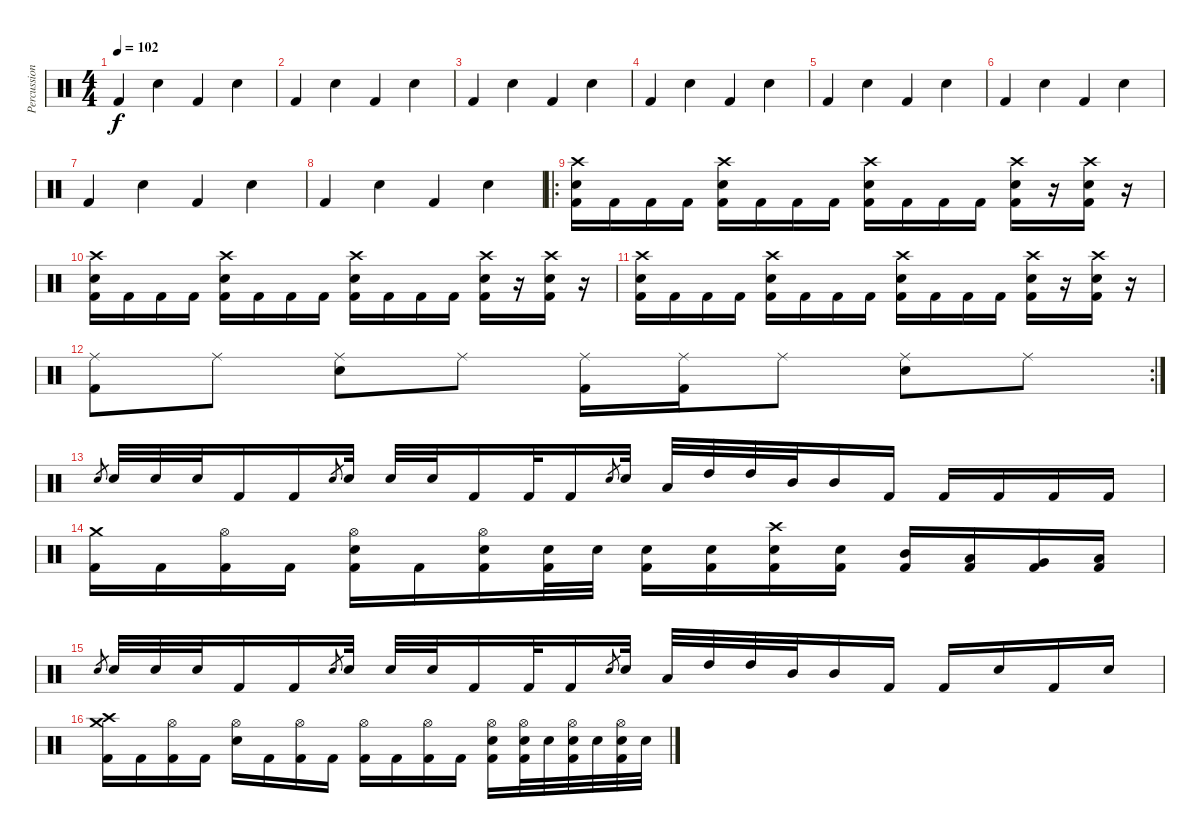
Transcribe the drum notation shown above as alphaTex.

\track ("Percussion" "Percussion") {instrument percussion}
\staff {score}
\articulation defaults
\ts (4 4)
\tempo 102
\clef neutral
\ks c "Kick (hit) 2".4{dy f} "Electric Snare (hit)".4 "Kick (hit) 2".4 "Electric Snare (hit)".4
|
"Kick (hit) 2".4 "Electric Snare (hit)".4 "Kick (hit) 2".4 "Electric Snare (hit)".4 |
"Kick (hit) 2".4 "Electric Snare (hit)".4 "Kick (hit) 2".4 "Electric Snare (hit)".4 |
"Kick (hit) 2".4 "Electric Snare (hit)".4 "Kick (hit) 2".4 "Electric Snare (hit)".4 |
"Kick (hit) 2".4 "Electric Snare (hit)".4 "Kick (hit) 2".4 "Electric Snare (hit)".4 |
"Kick (hit) 2".4 "Electric Snare (hit)".4 "Kick (hit) 2".4 "Electric Snare (hit)".4 |
"Kick (hit) 2".4 "Electric Snare (hit)".4 "Kick (hit) 2".4 "Electric Snare (hit)".4 |
"Kick (hit) 2".4 "Electric Snare (hit)".4 "Kick (hit) 2".4 "Electric Snare (hit)".4 |
\ro
("Kick (hit) 2" "Crash high (hit)" "Electric Snare (hit)").16 "Kick (hit) 2".16 "Kick (hit) 2".16 "Kick (hit) 2".16 ("Kick (hit) 2" "Crash high (hit)" "Electric Snare (hit)").16 "Kick (hit) 2".16 "Kick (hit) 2".16 "Kick (hit) 2".16 ("Kick (hit) 2" "Crash high (hit)" "Electric Snare (hit)").16 "Kick (hit) 2".16 "Kick (hit) 2".16 "Kick (hit) 2".16 ("Kick (hit) 2" "Crash high (hit)" "Electric Snare (hit)").16 r.16 ("Kick (hit) 2" "Crash high (hit)" "Electric Snare (hit)").16 r.16 |
("Kick (hit) 2" "Crash high (hit)" "Electric Snare (hit)").16 "Kick (hit) 2".16 "Kick (hit) 2".16 "Kick (hit) 2".16 ("Kick (hit) 2" "Crash high (hit)" "Electric Snare (hit)").16 "Kick (hit) 2".16 "Kick (hit) 2".16 "Kick (hit) 2".16 ("Kick (hit) 2" "Crash high (hit)" "Electric Snare (hit)").16 "Kick (hit) 2".16 "Kick (hit) 2".16 "Kick (hit) 2".16 ("Kick (hit) 2" "Crash high (hit)" "Electric Snare (hit)").16 r.16 ("Kick (hit) 2" "Crash high (hit)" "Electric Snare (hit)").16 r.16 |
("Kick (hit) 2" "Crash high (hit)" "Electric Snare (hit)").16 "Kick (hit) 2".16 "Kick (hit) 2".16 "Kick (hit) 2".16 ("Kick (hit) 2" "Crash high (hit)" "Electric Snare (hit)").16 "Kick (hit) 2".16 "Kick (hit) 2".16 "Kick (hit) 2".16 ("Kick (hit) 2" "Crash high (hit)" "Electric Snare (hit)").16 "Kick (hit) 2".16 "Kick (hit) 2".16 "Kick (hit) 2".16 ("Kick (hit) 2" "Crash high (hit)" "Electric Snare (hit)").16 r.16 ("Kick (hit) 2" "Crash high (hit)" "Electric Snare (hit)").16 r.16 |
\rc 2
("Ride (middle)" "Kick (hit) 2").8 "Ride (middle)".8 ("Ride (middle)" "Electric Snare (hit)").8 "Ride (middle)".8 ("Ride (middle)" "Kick (hit) 2").16 ("Ride (middle)" "Kick (hit) 2").16 "Ride (middle)".8 ("Ride (middle)" "Electric Snare (hit)").8 "Ride (middle)".8 |
"Electric Snare (hit)".8{gr} "Electric Snare (hit)".32 "Electric Snare (hit)".32 "Electric Snare (hit)".32 "Kick (hit) 2".16 "Kick (hit) 2".16 "Electric Snare (hit)".8{gr} "Electric Snare (hit)".32 "Electric Snare (hit)".32 "Electric Snare (hit)".32 "Kick (hit) 2".16 "Kick (hit) 2".32 "Kick (hit) 2".16 "Electric Snare (hit)".8{gr} "Electric Snare (hit)".32 "Low Tom (hit)".32 "High Tom (hit)".32 "High Tom (hit)".32 "Mid Tom (hit)".32 "Mid Tom (hit)".16 "Kick (hit) 2".16 "Kick (hit) 2".16 "Kick (hit) 2".16 "Kick (hit) 2".16 "Kick (hit) 2".16 |
("Crash medium (hit)" "Kick (hit) 2").16 "Kick (hit) 2".16 ("Hi-Hat (open)" "Kick (hit) 2").16 "Kick (hit) 2".16 ("Hi-Hat (open)" "Electric Snare (hit)" "Kick (hit) 2").16 "Kick (hit) 2".16 ("Hi-Hat (open)" "Electric Snare (hit)" "Kick (hit) 2").16 ("Electric Snare (hit)" "Kick (hit) 2").32 "Electric Snare (hit)".32 ("Electric Snare (hit)" "Kick (hit) 2").16 ("Electric Snare (hit)" "Kick (hit) 2").16 ("Crash high (hit)" "Electric Snare (hit)" "Kick (hit) 2").16 ("Electric Snare (hit)" "Kick (hit) 2").16 ("Mid Tom (hit)" "Kick (hit) 2").16 ("Low Tom (hit)" "Kick (hit) 2").16 ("Very Low Tom (hit)" "Kick (hit) 2").16 ("Low Floor Tom (hit)" "Kick (hit) 2").16 |
"Electric Snare (hit)".8{gr} "Electric Snare (hit)".32 "Electric Snare (hit)".32 "Electric Snare (hit)".32 "Kick (hit) 2".16 "Kick (hit) 2".16 "Electric Snare (hit)".8{gr} "Electric Snare (hit)".32 "Electric Snare (hit)".32 "Electric Snare (hit)".32 "Kick (hit) 2".16 "Kick (hit) 2".32 "Kick (hit) 2".16 "Electric Snare (hit)".8{gr} "Electric Snare (hit)".32 "Low Tom (hit)".32 "High Tom (hit)".32 "High Tom (hit)".32 "Mid Tom (hit)".32 "Mid Tom (hit)".16 "Kick (hit) 2".16 "Kick (hit) 2".16 "Electric Snare (hit)".16 "Kick (hit) 2".16 "Electric Snare (hit)".16 |
("Crash medium (hit)" "Crash high (hit)" "Kick (hit) 2").16 "Kick (hit) 2".16 ("Hi-Hat (open)" "Kick (hit) 2").16 "Kick (hit) 2".16 ("Hi-Hat (open)" "Electric Snare (hit)").16 "Kick (hit) 2".16 ("Hi-Hat (open)" "Kick (hit) 2").16 "Kick (hit) 2".16 ("Hi-Hat (open)" "Kick (hit) 2").16 "Kick (hit) 2".16 ("Hi-Hat (open)" "Kick (hit) 2").16 "Kick (hit) 2".16 ("Hi-Hat (open)" "Electric Snare (hit)" "Kick (hit) 2").16 ("Hi-Hat (open)" "Electric Snare (hit)" "Kick (hit) 2").32 "Electric Snare (hit)".32 ("Hi-Hat (open)" "Electric Snare (hit)" "Kick (hit) 2").32 "Electric Snare (hit)".32 ("Hi-Hat (open)" "Electric Snare (hit)" "Kick (hit) 2").32 "Electric Snare (hit)".32
